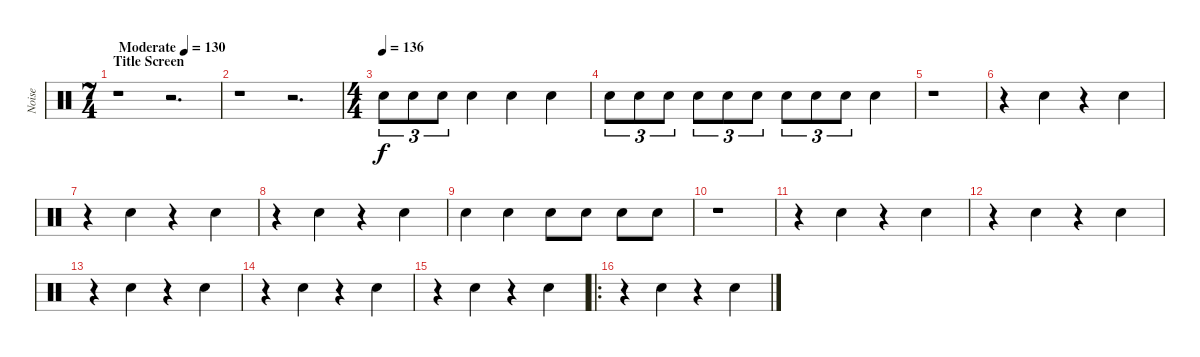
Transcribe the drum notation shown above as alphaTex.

\track ("Noise" "Noise") {instrument percussion}
\staff {score}
\articulation defaults
\ts (7 4)
\section ("" "Title Screen")
\tempo (130 "Moderate")
\clef neutral
\ks c
r.1{dy f volume 13} r.2{d} |
r.1 r.2{d} |
\ts (4 4)
\tempo (136)
"Snare (hit) 2".8{tu (3 2)} "Snare (hit) 2".8{tu (3 2)} "Snare (hit) 2".8{tu (3 2)} "Snare (hit) 2".4 "Snare (hit) 2".4 "Snare (hit) 2".4 |
"Snare (hit) 2".8{tu (3 2)} "Snare (hit) 2".8{tu (3 2)} "Snare (hit) 2".8{tu (3 2)} "Snare (hit) 2".8{tu (3 2)} "Snare (hit) 2".8{tu (3 2)} "Snare (hit) 2".8{tu (3 2)} "Snare (hit) 2".8{tu (3 2)} "Snare (hit) 2".8{tu (3 2)} "Snare (hit) 2".8{tu (3 2)} "Snare (hit) 2".4 |
r.1 |
r.4 "Snare (hit) 2".4 r.4 "Snare (hit) 2".4 |
r.4 "Snare (hit) 2".4 r.4 "Snare (hit) 2".4 |
r.4 "Snare (hit) 2".4 r.4 "Snare (hit) 2".4 |
"Snare (hit) 2".4 "Snare (hit) 2".4 "Snare (hit) 2".8 "Snare (hit) 2".8 "Snare (hit) 2".8 "Snare (hit) 2".8 |
r.1 |
r.4 "Snare (hit) 2".4 r.4 "Snare (hit) 2".4 |
r.4 "Snare (hit) 2".4 r.4 "Snare (hit) 2".4 |
r.4 "Snare (hit) 2".4 r.4 "Snare (hit) 2".4 |
r.4 "Snare (hit) 2".4 r.4 "Snare (hit) 2".4 |
r.4 "Snare (hit) 2".4 r.4 "Snare (hit) 2".4 |
\ro
r.4 "Snare (hit) 2".4 r.4 "Snare (hit) 2".4
